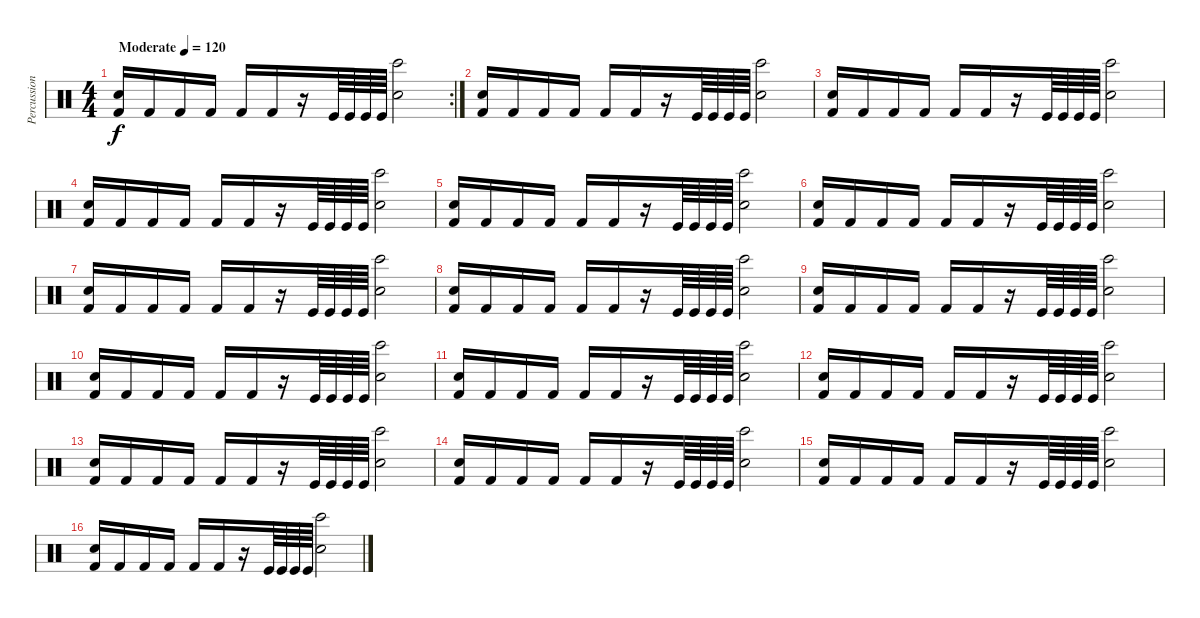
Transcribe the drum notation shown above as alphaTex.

\track ("Percussion" "Percussion") {instrument percussion}
\staff {score}
\articulation defaults
\rc 2
\ts (4 4)
\tempo (120 "Moderate")
\clef neutral
\ks c
("Kick (hit) 2" "Snare (hit) 2").16{dy f} "Kick (hit) 2".16 "Kick (hit) 2".16 "Kick (hit) 2".16 "Kick (hit) 2".16 "Kick (hit) 2".16 r.16 "Kick (hit)".64 "Kick (hit)".64 "Kick (hit)".64 "Kick (hit)".64 ("Bongo High (hit)" "Snare (hit) 2").2 |
("Kick (hit) 2" "Snare (hit) 2").16 "Kick (hit) 2".16 "Kick (hit) 2".16 "Kick (hit) 2".16 "Kick (hit) 2".16 "Kick (hit) 2".16 r.16 "Kick (hit)".64 "Kick (hit)".64 "Kick (hit)".64 "Kick (hit)".64 ("Bongo High (hit)" "Snare (hit) 2").2 |
("Kick (hit) 2" "Snare (hit) 2").16 "Kick (hit) 2".16 "Kick (hit) 2".16 "Kick (hit) 2".16 "Kick (hit) 2".16 "Kick (hit) 2".16 r.16 "Kick (hit)".64 "Kick (hit)".64 "Kick (hit)".64 "Kick (hit)".64 ("Bongo High (hit)" "Snare (hit) 2").2 |
("Kick (hit) 2" "Snare (hit) 2").16 "Kick (hit) 2".16 "Kick (hit) 2".16 "Kick (hit) 2".16 "Kick (hit) 2".16 "Kick (hit) 2".16 r.16 "Kick (hit)".64 "Kick (hit)".64 "Kick (hit)".64 "Kick (hit)".64 ("Bongo High (hit)" "Snare (hit) 2").2 |
("Kick (hit) 2" "Snare (hit) 2").16 "Kick (hit) 2".16 "Kick (hit) 2".16 "Kick (hit) 2".16 "Kick (hit) 2".16 "Kick (hit) 2".16 r.16 "Kick (hit)".64 "Kick (hit)".64 "Kick (hit)".64 "Kick (hit)".64 ("Bongo High (hit)" "Snare (hit) 2").2 |
("Kick (hit) 2" "Snare (hit) 2").16 "Kick (hit) 2".16 "Kick (hit) 2".16 "Kick (hit) 2".16 "Kick (hit) 2".16 "Kick (hit) 2".16 r.16 "Kick (hit)".64 "Kick (hit)".64 "Kick (hit)".64 "Kick (hit)".64 ("Bongo High (hit)" "Snare (hit) 2").2 |
("Kick (hit) 2" "Snare (hit) 2").16 "Kick (hit) 2".16 "Kick (hit) 2".16 "Kick (hit) 2".16 "Kick (hit) 2".16 "Kick (hit) 2".16 r.16 "Kick (hit)".64 "Kick (hit)".64 "Kick (hit)".64 "Kick (hit)".64 ("Bongo High (hit)" "Snare (hit) 2").2 |
("Kick (hit) 2" "Snare (hit) 2").16 "Kick (hit) 2".16 "Kick (hit) 2".16 "Kick (hit) 2".16 "Kick (hit) 2".16 "Kick (hit) 2".16 r.16 "Kick (hit)".64 "Kick (hit)".64 "Kick (hit)".64 "Kick (hit)".64 ("Bongo High (hit)" "Snare (hit) 2").2 |
("Kick (hit) 2" "Snare (hit) 2").16 "Kick (hit) 2".16 "Kick (hit) 2".16 "Kick (hit) 2".16 "Kick (hit) 2".16 "Kick (hit) 2".16 r.16 "Kick (hit)".64 "Kick (hit)".64 "Kick (hit)".64 "Kick (hit)".64 ("Bongo High (hit)" "Snare (hit) 2").2 |
("Kick (hit) 2" "Snare (hit) 2").16 "Kick (hit) 2".16 "Kick (hit) 2".16 "Kick (hit) 2".16 "Kick (hit) 2".16 "Kick (hit) 2".16 r.16 "Kick (hit)".64 "Kick (hit)".64 "Kick (hit)".64 "Kick (hit)".64 ("Bongo High (hit)" "Snare (hit) 2").2 |
("Kick (hit) 2" "Snare (hit) 2").16 "Kick (hit) 2".16 "Kick (hit) 2".16 "Kick (hit) 2".16 "Kick (hit) 2".16 "Kick (hit) 2".16 r.16 "Kick (hit)".64 "Kick (hit)".64 "Kick (hit)".64 "Kick (hit)".64 ("Bongo High (hit)" "Snare (hit) 2").2 |
("Kick (hit) 2" "Snare (hit) 2").16 "Kick (hit) 2".16 "Kick (hit) 2".16 "Kick (hit) 2".16 "Kick (hit) 2".16 "Kick (hit) 2".16 r.16 "Kick (hit)".64 "Kick (hit)".64 "Kick (hit)".64 "Kick (hit)".64 ("Bongo High (hit)" "Snare (hit) 2").2 |
("Kick (hit) 2" "Snare (hit) 2").16 "Kick (hit) 2".16 "Kick (hit) 2".16 "Kick (hit) 2".16 "Kick (hit) 2".16 "Kick (hit) 2".16 r.16 "Kick (hit)".64 "Kick (hit)".64 "Kick (hit)".64 "Kick (hit)".64 ("Bongo High (hit)" "Snare (hit) 2").2 |
("Kick (hit) 2" "Snare (hit) 2").16 "Kick (hit) 2".16 "Kick (hit) 2".16 "Kick (hit) 2".16 "Kick (hit) 2".16 "Kick (hit) 2".16 r.16 "Kick (hit)".64 "Kick (hit)".64 "Kick (hit)".64 "Kick (hit)".64 ("Bongo High (hit)" "Snare (hit) 2").2 |
("Kick (hit) 2" "Snare (hit) 2").16 "Kick (hit) 2".16 "Kick (hit) 2".16 "Kick (hit) 2".16 "Kick (hit) 2".16 "Kick (hit) 2".16 r.16 "Kick (hit)".64 "Kick (hit)".64 "Kick (hit)".64 "Kick (hit)".64 ("Bongo High (hit)" "Snare (hit) 2").2 |
("Kick (hit) 2" "Snare (hit) 2").16 "Kick (hit) 2".16 "Kick (hit) 2".16 "Kick (hit) 2".16 "Kick (hit) 2".16 "Kick (hit) 2".16 r.16 "Kick (hit)".64 "Kick (hit)".64 "Kick (hit)".64 "Kick (hit)".64 ("Bongo High (hit)" "Snare (hit) 2").2
